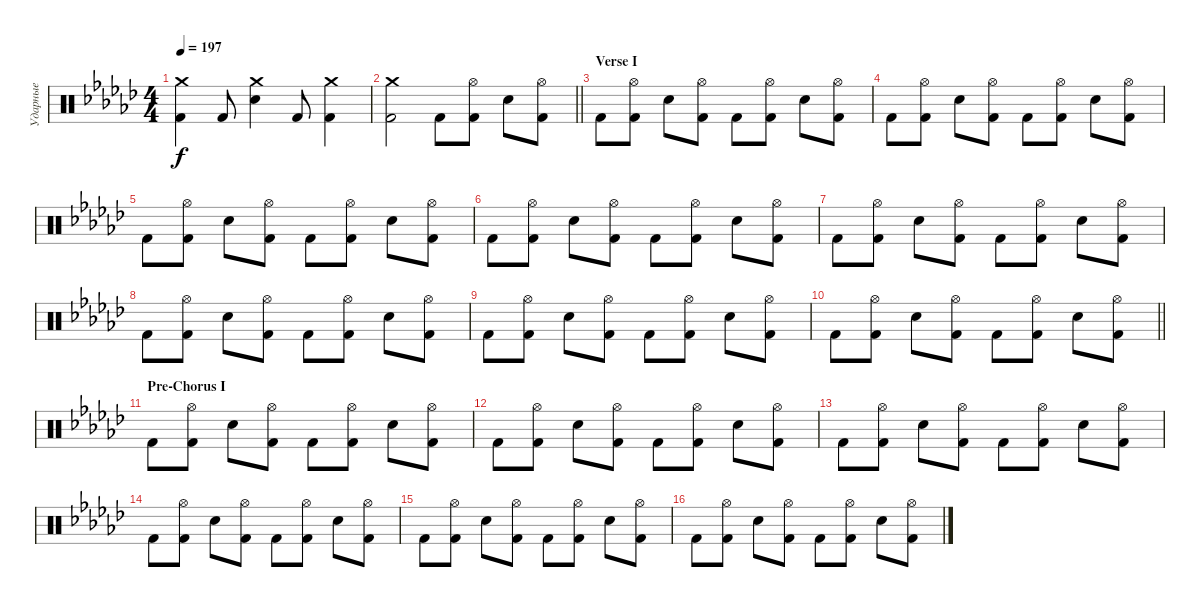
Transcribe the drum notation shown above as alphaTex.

\track ("Ударные" "Ударные") {instrument percussion}
\staff {score}
\articulation defaults
\ts (4 4)
\tempo 197
\clef neutral
\ks gb
("Crash medium (hit)" "Kick (hit) 2").4{dy f} "Kick (hit) 2".8 ("Crash medium (hit)" "Snare (hit) 2").4 "Kick (hit) 2".8 ("Crash medium (hit)" "Kick (hit) 2").4 |
\barLineRight lightlight
("Crash medium (hit)" "Kick (hit) 2").2 "Kick (hit) 2".8 ("Hi-Hat (open)" "Kick (hit) 2").8 "Snare (hit) 2".8 ("Hi-Hat (open)" "Kick (hit) 2").8 |
\section ("" "Verse I")
"Kick (hit) 2".8 ("Hi-Hat (open)" "Kick (hit) 2").8 "Snare (hit) 2".8 ("Hi-Hat (open)" "Kick (hit) 2").8 "Kick (hit) 2".8 ("Hi-Hat (open)" "Kick (hit) 2").8 "Snare (hit) 2".8 ("Hi-Hat (open)" "Kick (hit) 2").8 |
"Kick (hit) 2".8 ("Hi-Hat (open)" "Kick (hit) 2").8 "Snare (hit) 2".8 ("Hi-Hat (open)" "Kick (hit) 2").8 "Kick (hit) 2".8 ("Hi-Hat (open)" "Kick (hit) 2").8 "Snare (hit) 2".8 ("Hi-Hat (open)" "Kick (hit) 2").8 |
"Kick (hit) 2".8 ("Hi-Hat (open)" "Kick (hit) 2").8 "Snare (hit) 2".8 ("Hi-Hat (open)" "Kick (hit) 2").8 "Kick (hit) 2".8 ("Hi-Hat (open)" "Kick (hit) 2").8 "Snare (hit) 2".8 ("Hi-Hat (open)" "Kick (hit) 2").8 |
"Kick (hit) 2".8 ("Hi-Hat (open)" "Kick (hit) 2").8 "Snare (hit) 2".8 ("Hi-Hat (open)" "Kick (hit) 2").8 "Kick (hit) 2".8 ("Hi-Hat (open)" "Kick (hit) 2").8 "Snare (hit) 2".8 ("Hi-Hat (open)" "Kick (hit) 2").8 |
"Kick (hit) 2".8 ("Hi-Hat (open)" "Kick (hit) 2").8 "Snare (hit) 2".8 ("Hi-Hat (open)" "Kick (hit) 2").8 "Kick (hit) 2".8 ("Hi-Hat (open)" "Kick (hit) 2").8 "Snare (hit) 2".8 ("Hi-Hat (open)" "Kick (hit) 2").8 |
"Kick (hit) 2".8 ("Hi-Hat (open)" "Kick (hit) 2").8 "Snare (hit) 2".8 ("Hi-Hat (open)" "Kick (hit) 2").8 "Kick (hit) 2".8 ("Hi-Hat (open)" "Kick (hit) 2").8 "Snare (hit) 2".8 ("Hi-Hat (open)" "Kick (hit) 2").8 |
"Kick (hit) 2".8 ("Hi-Hat (open)" "Kick (hit) 2").8 "Snare (hit) 2".8 ("Hi-Hat (open)" "Kick (hit) 2").8 "Kick (hit) 2".8 ("Hi-Hat (open)" "Kick (hit) 2").8 "Snare (hit) 2".8 ("Hi-Hat (open)" "Kick (hit) 2").8 |
\barLineRight lightlight "Kick (hit) 2".8
("Hi-Hat (open)" "Kick (hit) 2").8 "Snare (hit) 2".8 ("Hi-Hat (open)" "Kick (hit) 2").8 "Kick (hit) 2".8 ("Hi-Hat (open)" "Kick (hit) 2").8 "Snare (hit) 2".8 ("Hi-Hat (open)" "Kick (hit) 2").8 |
\section ("" "Pre-Chorus I")
"Kick (hit) 2".8 ("Hi-Hat (open)" "Kick (hit) 2").8 "Snare (hit) 2".8 ("Hi-Hat (open)" "Kick (hit) 2").8 "Kick (hit) 2".8 ("Hi-Hat (open)" "Kick (hit) 2").8 "Snare (hit) 2".8 ("Hi-Hat (open)" "Kick (hit) 2").8 |
"Kick (hit) 2".8 ("Hi-Hat (open)" "Kick (hit) 2").8 "Snare (hit) 2".8 ("Hi-Hat (open)" "Kick (hit) 2").8 "Kick (hit) 2".8 ("Hi-Hat (open)" "Kick (hit) 2").8 "Snare (hit) 2".8 ("Hi-Hat (open)" "Kick (hit) 2").8 |
"Kick (hit) 2".8 ("Hi-Hat (open)" "Kick (hit) 2").8 "Snare (hit) 2".8 ("Hi-Hat (open)" "Kick (hit) 2").8 "Kick (hit) 2".8 ("Hi-Hat (open)" "Kick (hit) 2").8 "Snare (hit) 2".8 ("Hi-Hat (open)" "Kick (hit) 2").8 |
"Kick (hit) 2".8 ("Hi-Hat (open)" "Kick (hit) 2").8 "Snare (hit) 2".8 ("Hi-Hat (open)" "Kick (hit) 2").8 "Kick (hit) 2".8 ("Hi-Hat (open)" "Kick (hit) 2").8 "Snare (hit) 2".8 ("Hi-Hat (open)" "Kick (hit) 2").8 |
"Kick (hit) 2".8 ("Hi-Hat (open)" "Kick (hit) 2").8 "Snare (hit) 2".8 ("Hi-Hat (open)" "Kick (hit) 2").8 "Kick (hit) 2".8 ("Hi-Hat (open)" "Kick (hit) 2").8 "Snare (hit) 2".8 ("Hi-Hat (open)" "Kick (hit) 2").8 |
"Kick (hit) 2".8 ("Hi-Hat (open)" "Kick (hit) 2").8 "Snare (hit) 2".8 ("Hi-Hat (open)" "Kick (hit) 2").8 "Kick (hit) 2".8 ("Hi-Hat (open)" "Kick (hit) 2").8 "Snare (hit) 2".8 ("Hi-Hat (open)" "Kick (hit) 2").8
